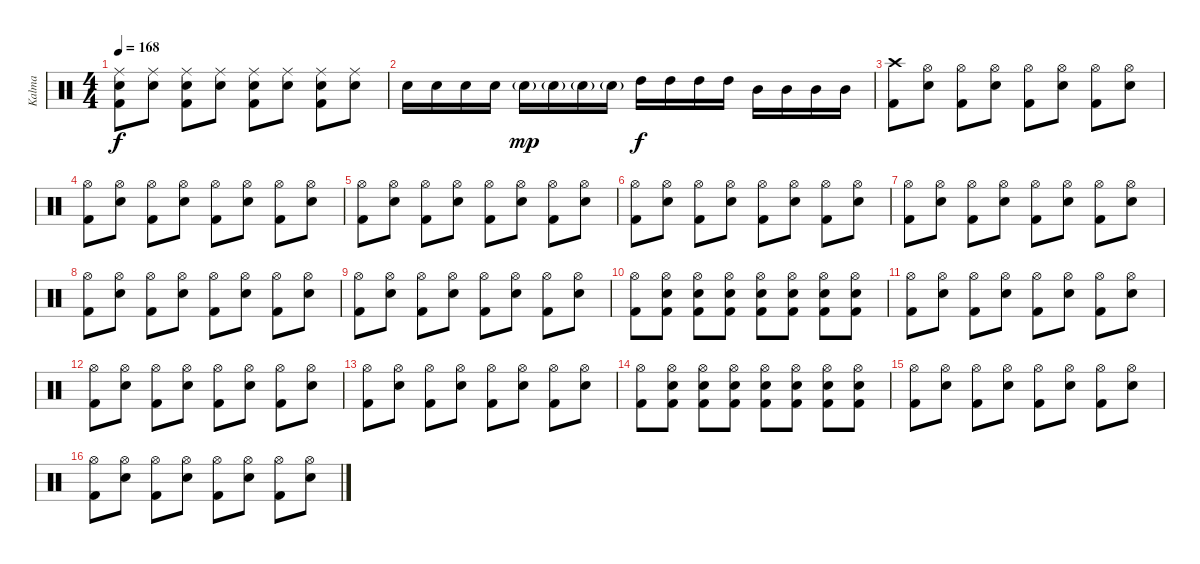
\track ("Kalma" "Kalma") {instrument percussion}
\staff {score}
\articulation defaults
\ts (4 4)
\tempo 168
\clef neutral
\ks c
("Ride (middle)" "Snare (hit) 2" "Kick (hit) 2").8{dy f} ("Ride (middle)" "Snare (hit) 2").8 ("Ride (middle)" "Snare (hit) 2" "Kick (hit) 2").8 ("Ride (middle)" "Snare (hit) 2").8 ("Ride (middle)" "Snare (hit) 2" "Kick (hit) 2").8 ("Ride (middle)" "Snare (hit) 2").8 ("Ride (middle)" "Snare (hit) 2" "Kick (hit) 2").8 ("Ride (middle)" "Snare (hit) 2").8 |
"Snare (hit) 2".16 "Snare (hit) 2".16 "Snare (hit) 2".16 "Snare (hit) 2".16 "Snare (hit) 2"{g}.16{dy mp} "Snare (hit) 2"{g}.16 "Snare (hit) 2"{g}.16 "Snare (hit) 2"{g}.16 "High Tom (hit)".16{dy f} "High Tom (hit)".16 "High Tom (hit)".16 "High Tom (hit)".16 "Mid Tom (hit)".16 "Mid Tom (hit)".16 "Mid Tom (hit)".16 "Mid Tom (hit)".16 |
("Crash high (hit)" "Kick (hit) 2").8 ("Hi-Hat (open)" "Snare (hit) 2").8 ("Hi-Hat (open)" "Kick (hit) 2").8 ("Hi-Hat (open)" "Snare (hit) 2").8 ("Hi-Hat (open)" "Kick (hit) 2").8 ("Hi-Hat (open)" "Snare (hit) 2").8 ("Hi-Hat (open)" "Kick (hit) 2").8 ("Hi-Hat (open)" "Snare (hit) 2").8 |
("Hi-Hat (open)" "Kick (hit) 2").8 ("Hi-Hat (open)" "Snare (hit) 2").8 ("Hi-Hat (open)" "Kick (hit) 2").8 ("Hi-Hat (open)" "Snare (hit) 2").8 ("Hi-Hat (open)" "Kick (hit) 2").8 ("Hi-Hat (open)" "Snare (hit) 2").8 ("Hi-Hat (open)" "Kick (hit) 2").8 ("Hi-Hat (open)" "Snare (hit) 2").8 |
("Hi-Hat (open)" "Kick (hit) 2").8 ("Hi-Hat (open)" "Snare (hit) 2").8 ("Hi-Hat (open)" "Kick (hit) 2").8 ("Hi-Hat (open)" "Snare (hit) 2").8 ("Hi-Hat (open)" "Kick (hit) 2").8 ("Hi-Hat (open)" "Snare (hit) 2").8 ("Hi-Hat (open)" "Kick (hit) 2").8 ("Hi-Hat (open)" "Snare (hit) 2").8 |
("Hi-Hat (open)" "Kick (hit) 2").8 ("Hi-Hat (open)" "Snare (hit) 2").8 ("Hi-Hat (open)" "Kick (hit) 2").8 ("Hi-Hat (open)" "Snare (hit) 2").8 ("Hi-Hat (open)" "Kick (hit) 2").8 ("Hi-Hat (open)" "Snare (hit) 2").8 ("Hi-Hat (open)" "Kick (hit) 2").8 ("Hi-Hat (open)" "Snare (hit) 2").8 |
("Hi-Hat (open)" "Kick (hit) 2").8 ("Hi-Hat (open)" "Snare (hit) 2").8 ("Hi-Hat (open)" "Kick (hit) 2").8 ("Hi-Hat (open)" "Snare (hit) 2").8 ("Hi-Hat (open)" "Kick (hit) 2").8 ("Hi-Hat (open)" "Snare (hit) 2").8 ("Hi-Hat (open)" "Kick (hit) 2").8 ("Hi-Hat (open)" "Snare (hit) 2").8 |
("Hi-Hat (open)" "Kick (hit) 2").8 ("Hi-Hat (open)" "Snare (hit) 2").8 ("Hi-Hat (open)" "Kick (hit) 2").8 ("Hi-Hat (open)" "Snare (hit) 2").8 ("Hi-Hat (open)" "Kick (hit) 2").8 ("Hi-Hat (open)" "Snare (hit) 2").8 ("Hi-Hat (open)" "Kick (hit) 2").8 ("Hi-Hat (open)" "Snare (hit) 2").8 |
("Hi-Hat (open)" "Kick (hit) 2").8 ("Hi-Hat (open)" "Snare (hit) 2").8 ("Hi-Hat (open)" "Kick (hit) 2").8 ("Hi-Hat (open)" "Snare (hit) 2").8 ("Hi-Hat (open)" "Kick (hit) 2").8 ("Hi-Hat (open)" "Snare (hit) 2").8 ("Hi-Hat (open)" "Kick (hit) 2").8 ("Hi-Hat (open)" "Snare (hit) 2").8 |
("Hi-Hat (open)" "Kick (hit) 2").8 ("Hi-Hat (open)" "Snare (hit) 2" "Kick (hit) 2").8 ("Hi-Hat (open)" "Snare (hit) 2" "Kick (hit) 2").8 ("Hi-Hat (open)" "Snare (hit) 2" "Kick (hit) 2").8 ("Hi-Hat (open)" "Snare (hit) 2" "Kick (hit) 2").8 ("Hi-Hat (open)" "Snare (hit) 2" "Kick (hit) 2").8 ("Hi-Hat (open)" "Snare (hit) 2" "Kick (hit) 2").8 ("Hi-Hat (open)" "Snare (hit) 2" "Kick (hit) 2").8 |
("Hi-Hat (open)" "Kick (hit) 2").8 ("Hi-Hat (open)" "Snare (hit) 2").8 ("Hi-Hat (open)" "Kick (hit) 2").8 ("Hi-Hat (open)" "Snare (hit) 2").8 ("Hi-Hat (open)" "Kick (hit) 2").8 ("Hi-Hat (open)" "Snare (hit) 2").8 ("Hi-Hat (open)" "Kick (hit) 2").8 ("Hi-Hat (open)" "Snare (hit) 2").8 |
("Hi-Hat (open)" "Kick (hit) 2").8 ("Hi-Hat (open)" "Snare (hit) 2").8 ("Hi-Hat (open)" "Kick (hit) 2").8 ("Hi-Hat (open)" "Snare (hit) 2").8 ("Hi-Hat (open)" "Kick (hit) 2").8 ("Hi-Hat (open)" "Snare (hit) 2").8 ("Hi-Hat (open)" "Kick (hit) 2").8 ("Hi-Hat (open)" "Snare (hit) 2").8 |
("Hi-Hat (open)" "Kick (hit) 2").8 ("Hi-Hat (open)" "Snare (hit) 2").8 ("Hi-Hat (open)" "Kick (hit) 2").8 ("Hi-Hat (open)" "Snare (hit) 2").8 ("Hi-Hat (open)" "Kick (hit) 2").8 ("Hi-Hat (open)" "Snare (hit) 2").8 ("Hi-Hat (open)" "Kick (hit) 2").8 ("Hi-Hat (open)" "Snare (hit) 2").8 |
("Hi-Hat (open)" "Kick (hit) 2").8 ("Hi-Hat (open)" "Snare (hit) 2" "Kick (hit) 2").8 ("Hi-Hat (open)" "Snare (hit) 2" "Kick (hit) 2").8 ("Hi-Hat (open)" "Snare (hit) 2" "Kick (hit) 2").8 ("Hi-Hat (open)" "Snare (hit) 2" "Kick (hit) 2").8 ("Hi-Hat (open)" "Snare (hit) 2" "Kick (hit) 2").8 ("Hi-Hat (open)" "Snare (hit) 2" "Kick (hit) 2").8 ("Hi-Hat (open)" "Snare (hit) 2" "Kick (hit) 2").8 |
("Hi-Hat (open)" "Kick (hit) 2").8 ("Hi-Hat (open)" "Snare (hit) 2").8 ("Hi-Hat (open)" "Kick (hit) 2").8 ("Hi-Hat (open)" "Snare (hit) 2").8 ("Hi-Hat (open)" "Kick (hit) 2").8 ("Hi-Hat (open)" "Snare (hit) 2").8 ("Hi-Hat (open)" "Kick (hit) 2").8 ("Hi-Hat (open)" "Snare (hit) 2").8 |
("Hi-Hat (open)" "Kick (hit) 2").8 ("Hi-Hat (open)" "Snare (hit) 2").8 ("Hi-Hat (open)" "Kick (hit) 2").8 ("Hi-Hat (open)" "Snare (hit) 2").8 ("Hi-Hat (open)" "Kick (hit) 2").8 ("Hi-Hat (open)" "Snare (hit) 2").8 ("Hi-Hat (open)" "Kick (hit) 2").8 ("Hi-Hat (open)" "Snare (hit) 2").8
